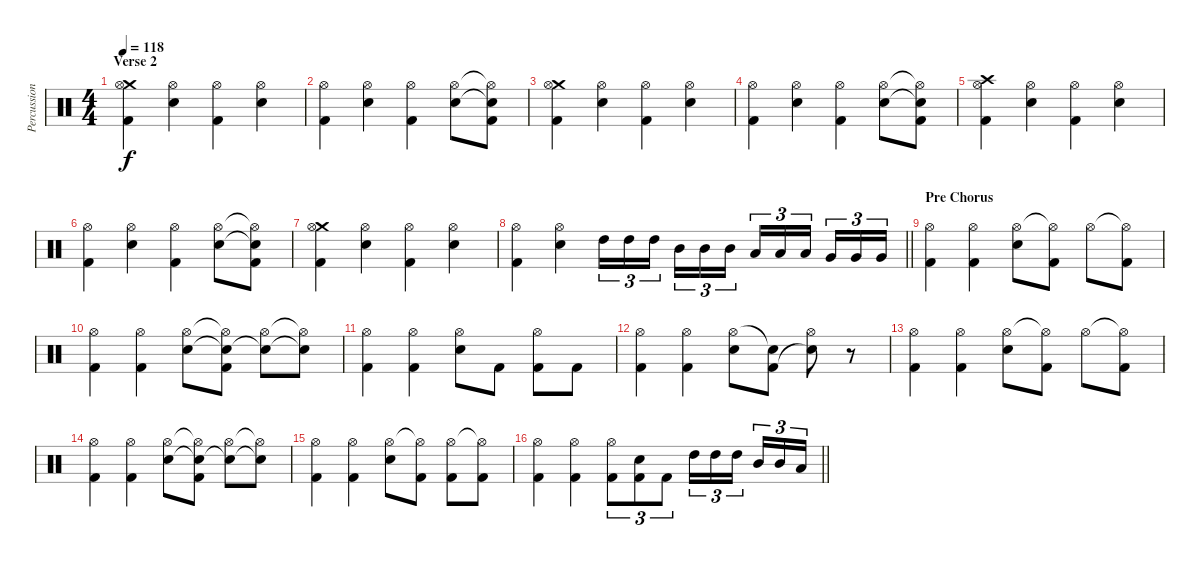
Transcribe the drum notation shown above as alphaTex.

\track ("Percussion" "Percussion") {instrument percussion}
\staff {score}
\articulation defaults
\ts (4 4)
\section ("" "Verse 2")
\tempo 118
\clef neutral
\ks c
("Crash medium (hit)"{t} "Hi-Hat (open)" "Kick (hit) 2").4{dy f} ("Hi-Hat (open)" "Electric Snare (hit)").4 ("Hi-Hat (open)" "Kick (hit) 2").4 ("Hi-Hat (open)" "Electric Snare (hit)").4 |
("Hi-Hat (open)" "Kick (hit) 2").4 ("Hi-Hat (open)" "Electric Snare (hit)").4 ("Hi-Hat (open)" "Kick (hit) 2").4 ("Hi-Hat (open)" "Electric Snare (hit)").8 ("Hi-Hat (open)"{t} "Electric Snare (hit)"{t} "Kick (hit) 2").8 |
("Crash medium (hit)" "Hi-Hat (open)" "Kick (hit) 2").4 ("Hi-Hat (open)" "Electric Snare (hit)").4 ("Hi-Hat (open)" "Kick (hit) 2").4 ("Hi-Hat (open)" "Electric Snare (hit)").4 |
("Hi-Hat (open)" "Kick (hit) 2").4 ("Hi-Hat (open)" "Electric Snare (hit)").4 ("Hi-Hat (open)" "Kick (hit) 2").4 ("Hi-Hat (open)" "Electric Snare (hit)").8 ("Hi-Hat (open)"{t} "Electric Snare (hit)"{t} "Kick (hit) 2").8 |
("Crash high (hit)" "Hi-Hat (open)" "Kick (hit) 2").4 ("Hi-Hat (open)" "Electric Snare (hit)").4 ("Hi-Hat (open)" "Kick (hit) 2").4 ("Hi-Hat (open)" "Electric Snare (hit)").4 |
("Hi-Hat (open)" "Kick (hit) 2").4 ("Hi-Hat (open)" "Electric Snare (hit)").4 ("Hi-Hat (open)" "Kick (hit) 2").4 ("Hi-Hat (open)" "Electric Snare (hit)").8 ("Hi-Hat (open)"{t} "Electric Snare (hit)"{t} "Kick (hit) 2").8 |
("Crash medium (hit)" "Hi-Hat (open)" "Kick (hit) 2").4 ("Hi-Hat (open)" "Electric Snare (hit)").4 ("Hi-Hat (open)" "Kick (hit) 2").4 ("Hi-Hat (open)" "Electric Snare (hit)").4 |
\barLineRight lightlight
("Hi-Hat (open)" "Kick (hit) 2").4 ("Hi-Hat (open)" "Electric Snare (hit)").4 "High Tom (hit)".16{tu (3 2)} "High Tom (hit)".16{tu (3 2)} "High Tom (hit)".16{tu (3 2) beam splitsecondary} "Mid Tom (hit)".16{tu (3 2)} "Mid Tom (hit)".16{tu (3 2)} "Mid Tom (hit)".16{tu (3 2)} "Low Tom (hit)".16{tu (3 2)} "Low Tom (hit)".16{tu (3 2)} "Low Tom (hit)".16{tu (3 2) beam splitsecondary} "Very Low Tom (hit)".16{tu (3 2)} "Very Low Tom (hit)".16{tu (3 2)} "Very Low Tom (hit)".16{tu (3 2)} |
\section ("" "Pre Chorus")
("Hi-Hat (open)" "Kick (hit) 2").4 ("Hi-Hat (open)" "Kick (hit) 2").4 ("Hi-Hat (open)" "Electric Snare (hit)").8 ("Hi-Hat (open)"{t} "Kick (hit) 2").8 "Hi-Hat (open)".8 ("Hi-Hat (open)"{t} "Kick (hit) 2").8 |
("Hi-Hat (open)" "Kick (hit) 2").4 ("Hi-Hat (open)" "Kick (hit) 2").4 ("Hi-Hat (open)" "Electric Snare (hit)").8 ("Hi-Hat (open)"{t} "Electric Snare (hit)"{t} "Kick (hit) 2").8 ("Hi-Hat (open)" "Electric Snare (hit)"{t}).8 ("Hi-Hat (open)"{t} "Electric Snare (hit)"{t}).8 |
("Hi-Hat (open)" "Kick (hit) 2").4 ("Hi-Hat (open)" "Kick (hit) 2").4 ("Hi-Hat (open)" "Electric Snare (hit)").8 "Kick (hit) 2".8 ("Hi-Hat (open)" "Kick (hit) 2").8 "Kick (hit) 2".8 |
("Hi-Hat (open)" "Kick (hit) 2").4 ("Hi-Hat (open)" "Kick (hit) 2").4 ("Hi-Hat (open)" "Electric Snare (hit)").8 ("Electric Snare (hit)"{t} "Kick (hit) 2").8 ("Hi-Hat (open)" "Electric Snare (hit)"{t}).8 r.8 |
("Hi-Hat (open)" "Kick (hit) 2").4 ("Hi-Hat (open)" "Kick (hit) 2").4 ("Hi-Hat (open)" "Electric Snare (hit)").8 ("Hi-Hat (open)"{t} "Kick (hit) 2").8 "Hi-Hat (open)".8 ("Hi-Hat (open)"{t} "Kick (hit) 2").8 |
("Hi-Hat (open)" "Kick (hit) 2").4 ("Hi-Hat (open)" "Kick (hit) 2").4 ("Hi-Hat (open)" "Electric Snare (hit)").8 ("Hi-Hat (open)"{t} "Electric Snare (hit)"{t} "Kick (hit) 2").8 ("Hi-Hat (open)" "Electric Snare (hit)"{t}).8 ("Hi-Hat (open)"{t} "Electric Snare (hit)"{t}).8 |
("Hi-Hat (open)" "Kick (hit) 2").4 ("Hi-Hat (open)" "Kick (hit) 2").4 ("Hi-Hat (open)" "Electric Snare (hit)").8 ("Hi-Hat (open)"{t} "Kick (hit) 2").8 ("Hi-Hat (open)" "Kick (hit) 2").8 ("Hi-Hat (open)"{t} "Kick (hit) 2").8 |
\barLineRight lightlight
("Hi-Hat (open)" "Kick (hit) 2").4 ("Hi-Hat (open)" "Kick (hit) 2").4 ("Hi-Hat (open)" "Kick (hit) 2").8{tu (3 2)} ("Electric Snare (hit)" "Kick (hit) 2").8{tu (3 2)} "Kick (hit) 2".8{tu (3 2)} "High Tom (hit)".16{tu (3 2)} "High Tom (hit)".16{tu (3 2)} "High Tom (hit)".16{tu (3 2) beam splitsecondary} "Mid Tom (hit)".16{tu (3 2)} "Mid Tom (hit)".16{tu (3 2)} "Low Tom (hit)".16{tu (3 2)}
